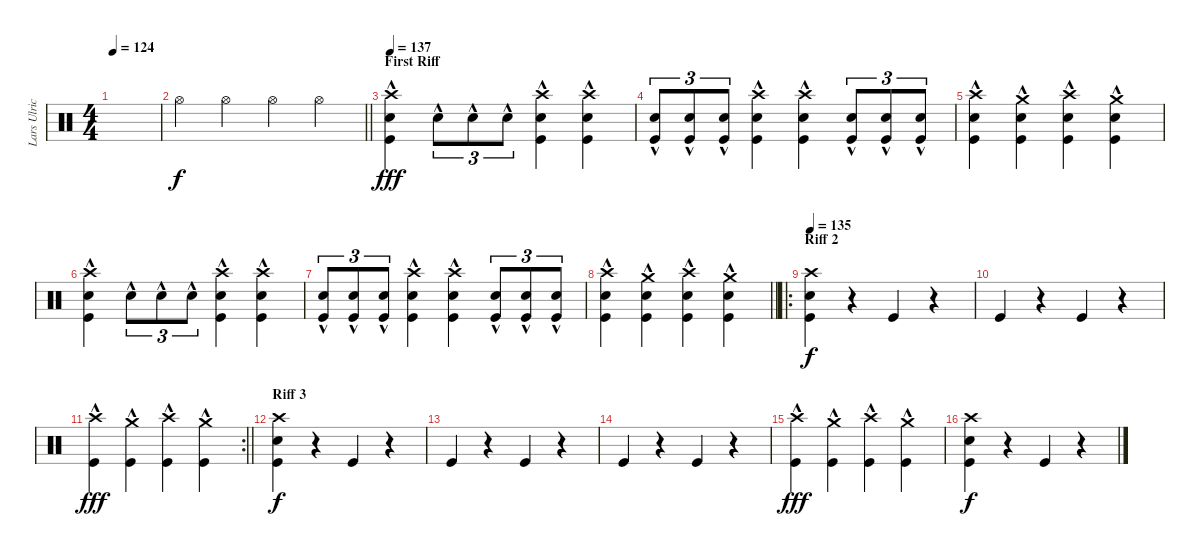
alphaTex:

\track ("Lars Ulrich" "Lars Ulric") {instrument percussion}
\staff {score}
\articulation defaults
\ts (4 4)
\tempo 124
\clef neutral
\ks c
|
\barLineRight lightlight "Hi-Hat (open)".4 "Hi-Hat (open)".4 "Hi-Hat (open)".4 "Hi-Hat (open)".4
|
\section ("" "First Riff")
\tempo 137
("Crash high (hit)"{hac} "Snare (hit) 2"{hac} "Kick (hit)"{hac}).4{dy fff} "Snare (hit) 2"{hac}.8{tu (3 2)} "Snare (hit) 2"{hac}.8{tu (3 2)} "Snare (hit) 2"{hac}.8{tu (3 2)} ("Crash high (hit)"{hac} "Snare (hit) 2"{hac} "Kick (hit)"{hac}).4 ("Crash high (hit)"{hac} "Snare (hit) 2"{hac} "Kick (hit)"{hac}).4 |
("Snare (hit) 2"{hac} "Kick (hit)"{hac}).8{tu (3 2)} ("Snare (hit) 2"{hac} "Kick (hit)"{hac}).8{tu (3 2)} ("Snare (hit) 2"{hac} "Kick (hit)"{hac}).8{tu (3 2)} ("Crash high (hit)"{hac} "Snare (hit) 2"{hac} "Kick (hit)"{hac}).4 ("Crash high (hit)"{hac} "Snare (hit) 2"{hac} "Kick (hit)"{hac}).4 ("Snare (hit) 2"{hac} "Kick (hit)"{hac}).8{tu (3 2)} ("Snare (hit) 2"{hac} "Kick (hit)"{hac}).8{tu (3 2)} ("Snare (hit) 2"{hac} "Kick (hit)"{hac}).8{tu (3 2)} |
("Crash high (hit)"{hac} "Snare (hit) 2"{hac} "Kick (hit)"{hac}).4 ("Crash medium (hit)"{hac} "Snare (hit) 2"{hac} "Kick (hit)"{hac}).4 ("Crash high (hit)"{hac} "Snare (hit) 2"{hac} "Kick (hit)"{hac}).4 ("Crash medium (hit)"{hac} "Snare (hit) 2"{hac} "Kick (hit)"{hac}).4 |
("Crash high (hit)"{hac} "Snare (hit) 2"{hac} "Kick (hit)"{hac}).4 "Snare (hit) 2"{hac}.8{tu (3 2)} "Snare (hit) 2"{hac}.8{tu (3 2)} "Snare (hit) 2"{hac}.8{tu (3 2)} ("Crash high (hit)"{hac} "Snare (hit) 2"{hac} "Kick (hit)"{hac}).4 ("Crash high (hit)"{hac} "Snare (hit) 2"{hac} "Kick (hit)"{hac}).4 |
("Snare (hit) 2"{hac} "Kick (hit)"{hac}).8{tu (3 2)} ("Snare (hit) 2"{hac} "Kick (hit)"{hac}).8{tu (3 2)} ("Snare (hit) 2"{hac} "Kick (hit)"{hac}).8{tu (3 2)} ("Crash high (hit)"{hac} "Snare (hit) 2"{hac} "Kick (hit)"{hac}).4 ("Crash high (hit)"{hac} "Snare (hit) 2"{hac} "Kick (hit)"{hac}).4 ("Snare (hit) 2"{hac} "Kick (hit)"{hac}).8{tu (3 2)} ("Snare (hit) 2"{hac} "Kick (hit)"{hac}).8{tu (3 2)} ("Snare (hit) 2"{hac} "Kick (hit)"{hac}).8{tu (3 2)} |
\barLineRight lightlight
("Crash high (hit)"{hac} "Snare (hit) 2"{hac} "Kick (hit)"{hac}).4 ("Crash medium (hit)"{hac} "Snare (hit) 2"{hac} "Kick (hit)"{hac}).4 ("Crash high (hit)"{hac} "Snare (hit) 2"{hac} "Kick (hit)"{hac}).4 ("Crash medium (hit)"{hac} "Snare (hit) 2"{hac} "Kick (hit)"{hac}).4 |
\ro
\section ("" "Riff 2")
\tempo 135
("Crash high (hit)" "Snare (hit) 2" "Kick (hit)").4{dy f} r.4 "Kick (hit)".4 r.4 |
"Kick (hit)".4 r.4 "Kick (hit)".4 r.4 |
\rc 2
\barLineRight lightlight
("Crash high (hit)"{hac} "Kick (hit)"{hac}).4{dy fff} ("Crash medium (hit)"{hac} "Kick (hit)"{hac}).4 ("Crash high (hit)"{hac} "Kick (hit)"{hac}).4 ("Crash medium (hit)"{hac} "Kick (hit)"{hac}).4 |
\section ("" "Riff 3")
("Crash high (hit)" "Snare (hit) 2" "Kick (hit)").4{dy f} r.4 "Kick (hit)".4 r.4 |
"Kick (hit)".4 r.4 "Kick (hit)".4 r.4 |
"Kick (hit)".4 r.4 "Kick (hit)".4 r.4 |
("Crash high (hit)"{hac} "Kick (hit)"{hac}).4{dy fff} ("Crash medium (hit)"{hac} "Kick (hit)"{hac}).4 ("Crash high (hit)"{hac} "Kick (hit)"{hac}).4 ("Crash medium (hit)"{hac} "Kick (hit)"{hac}).4 |
("Crash high (hit)" "Snare (hit) 2" "Kick (hit)").4{dy f} r.4 "Kick (hit)".4 r.4
